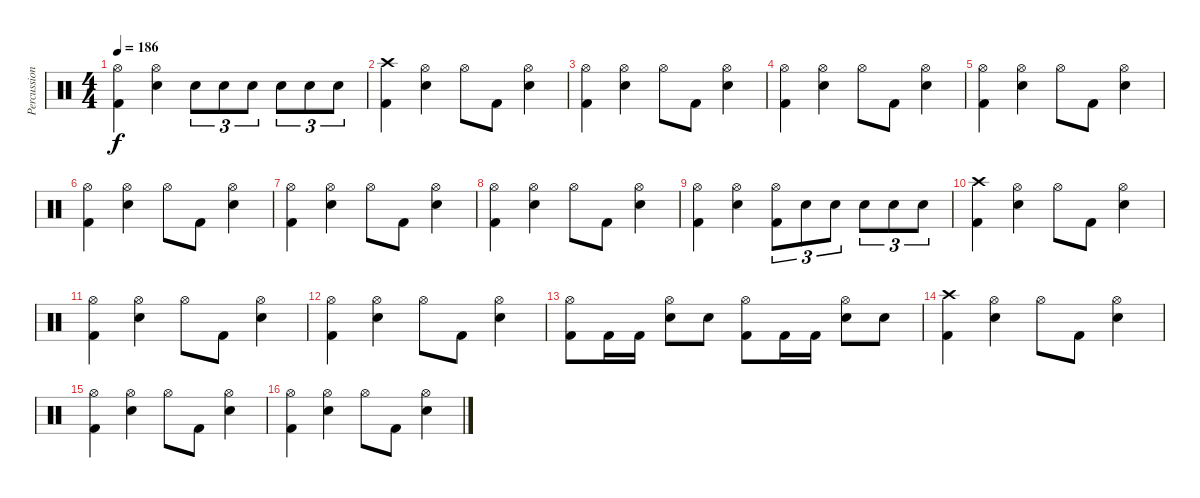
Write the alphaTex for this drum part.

\track ("Percussion" "Percussion") {instrument percussion}
\staff {score}
\articulation defaults
\ts (4 4)
\tempo 186
\clef neutral
\ks c
("Hi-Hat (open)" "Kick (hit) 2").4{dy f} ("Hi-Hat (open)" "Snare (hit) 2").4 "Snare (hit) 2".8{tu (3 2)} "Snare (hit) 2".8{tu (3 2)} "Snare (hit) 2".8{tu (3 2)} "Snare (hit) 2".8{tu (3 2)} "Snare (hit) 2".8{tu (3 2)} "Snare (hit) 2".8{tu (3 2)} |
("Crash high (hit)" "Kick (hit) 2").4 ("Hi-Hat (open)" "Snare (hit) 2").4 "Hi-Hat (open)".8 "Kick (hit) 2".8 ("Hi-Hat (open)" "Snare (hit) 2").4 |
("Hi-Hat (open)" "Kick (hit) 2").4 ("Hi-Hat (open)" "Snare (hit) 2").4 "Hi-Hat (open)".8 "Kick (hit) 2".8 ("Hi-Hat (open)" "Snare (hit) 2").4 |
("Hi-Hat (open)" "Kick (hit) 2").4 ("Hi-Hat (open)" "Snare (hit) 2").4 "Hi-Hat (open)".8 "Kick (hit) 2".8 ("Hi-Hat (open)" "Snare (hit) 2").4 |
("Hi-Hat (open)" "Kick (hit) 2").4 ("Hi-Hat (open)" "Snare (hit) 2").4 "Hi-Hat (open)".8 "Kick (hit) 2".8 ("Hi-Hat (open)" "Snare (hit) 2").4 |
("Hi-Hat (open)" "Kick (hit) 2").4 ("Hi-Hat (open)" "Snare (hit) 2").4 "Hi-Hat (open)".8 "Kick (hit) 2".8 ("Hi-Hat (open)" "Snare (hit) 2").4 |
("Hi-Hat (open)" "Kick (hit) 2").4 ("Hi-Hat (open)" "Snare (hit) 2").4 "Hi-Hat (open)".8 "Kick (hit) 2".8 ("Hi-Hat (open)" "Snare (hit) 2").4 |
("Hi-Hat (open)" "Kick (hit) 2").4 ("Hi-Hat (open)" "Snare (hit) 2").4 "Hi-Hat (open)".8 "Kick (hit) 2".8 ("Hi-Hat (open)" "Snare (hit) 2").4 |
("Hi-Hat (open)" "Kick (hit) 2").4 ("Hi-Hat (open)" "Snare (hit) 2").4 ("Hi-Hat (open)" "Kick (hit) 2").8{tu (3 2)} "Snare (hit) 2".8{tu (3 2)} "Snare (hit) 2".8{tu (3 2)} "Snare (hit) 2".8{tu (3 2)} "Snare (hit) 2".8{tu (3 2)} "Snare (hit) 2".8{tu (3 2)} |
("Crash high (hit)" "Kick (hit) 2").4 ("Hi-Hat (open)" "Snare (hit) 2").4 "Hi-Hat (open)".8 "Kick (hit) 2".8 ("Hi-Hat (open)" "Snare (hit) 2").4 |
("Hi-Hat (open)" "Kick (hit) 2").4 ("Hi-Hat (open)" "Snare (hit) 2").4 "Hi-Hat (open)".8 "Kick (hit) 2".8 ("Hi-Hat (open)" "Snare (hit) 2").4 |
("Hi-Hat (open)" "Kick (hit) 2").4 ("Hi-Hat (open)" "Snare (hit) 2").4 "Hi-Hat (open)".8 "Kick (hit) 2".8 ("Hi-Hat (open)" "Snare (hit) 2").4 |
("Hi-Hat (open)" "Kick (hit) 2").8 "Kick (hit) 2".16 "Kick (hit) 2".16 ("Hi-Hat (open)" "Snare (hit) 2").8 "Snare (hit) 2".8 ("Hi-Hat (open)" "Kick (hit) 2").8 "Kick (hit) 2".16 "Kick (hit) 2".16 ("Hi-Hat (open)" "Snare (hit) 2").8 "Snare (hit) 2".8 |
("Crash high (hit)" "Kick (hit) 2").4 ("Hi-Hat (open)" "Snare (hit) 2").4 "Hi-Hat (open)".8 "Kick (hit) 2".8 ("Hi-Hat (open)" "Snare (hit) 2").4 |
("Hi-Hat (open)" "Kick (hit) 2").4 ("Hi-Hat (open)" "Snare (hit) 2").4 "Hi-Hat (open)".8 "Kick (hit) 2".8 ("Hi-Hat (open)" "Snare (hit) 2").4 |
("Hi-Hat (open)" "Kick (hit) 2").4 ("Hi-Hat (open)" "Snare (hit) 2").4 "Hi-Hat (open)".8 "Kick (hit) 2".8 ("Hi-Hat (open)" "Snare (hit) 2").4
